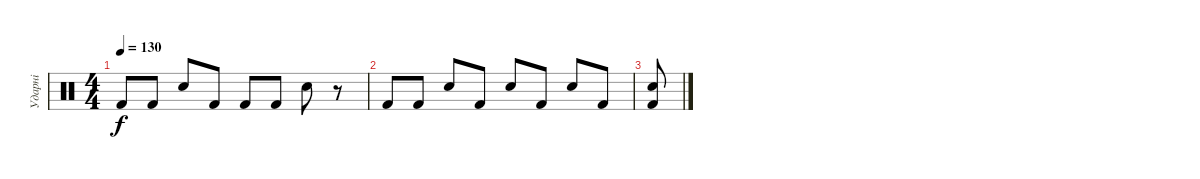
\track ("Ударні" "Ударні") {instrument percussion}
\staff {score}
\articulation defaults
\ts (4 4)
\tempo 130
\clef neutral
\ks c "Kick (hit) 2".8{dy f} "Kick (hit) 2".8 "Snare (hit) 2".8 "Kick (hit) 2".8 "Kick (hit) 2".8 "Kick (hit) 2".8 "Snare (hit) 2".8
r.8 |
"Kick (hit) 2".8 "Kick (hit) 2".8 "Snare (hit) 2".8 "Kick (hit) 2".8 "Snare (hit) 2".8 "Kick (hit) 2".8 "Snare (hit) 2".8 "Kick (hit) 2".8 |
("Kick (hit) 2" "Snare (hit) 2").8
